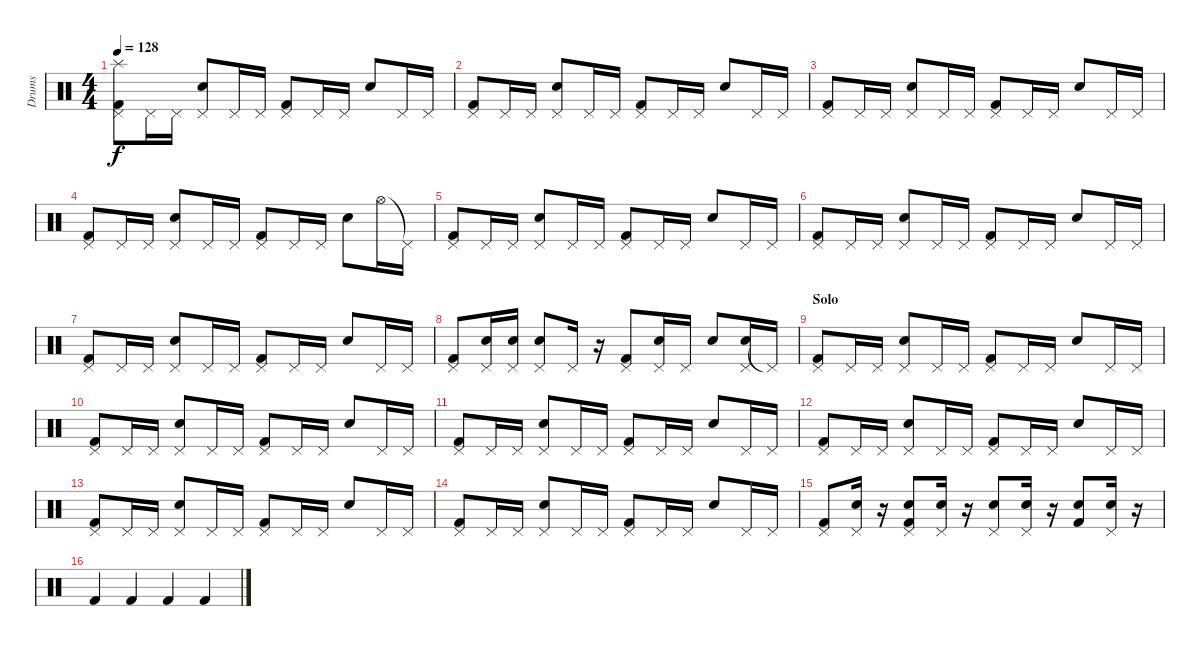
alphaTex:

\track ("Drums" "Drums") {instrument percussion}
\staff {score}
\articulation defaults
\ts (4 4)
\tempo 128
\clef neutral
\ks c
("Splash (hit)" "Kick (hit) 2" "Pedal Hi-Hat (hit)").8{dy f} "Pedal Hi-Hat (hit)".16 "Pedal Hi-Hat (hit)".16 ("Snare (hit) 2" "Pedal Hi-Hat (hit)").8 "Pedal Hi-Hat (hit)".16 "Pedal Hi-Hat (hit)".16 ("Kick (hit) 2" "Pedal Hi-Hat (hit)").8 "Pedal Hi-Hat (hit)".16 "Pedal Hi-Hat (hit)".16 "Snare (hit) 2".8 "Pedal Hi-Hat (hit)".16 "Pedal Hi-Hat (hit)".16 |
("Kick (hit) 2" "Pedal Hi-Hat (hit)").8 "Pedal Hi-Hat (hit)".16 "Pedal Hi-Hat (hit)".16 ("Snare (hit) 2" "Pedal Hi-Hat (hit)").8 "Pedal Hi-Hat (hit)".16 "Pedal Hi-Hat (hit)".16 ("Kick (hit) 2" "Pedal Hi-Hat (hit)").8 "Pedal Hi-Hat (hit)".16 "Pedal Hi-Hat (hit)".16 "Snare (hit) 2".8 "Pedal Hi-Hat (hit)".16 "Pedal Hi-Hat (hit)".16 |
("Kick (hit) 2" "Pedal Hi-Hat (hit)").8 "Pedal Hi-Hat (hit)".16 "Pedal Hi-Hat (hit)".16 ("Snare (hit) 2" "Pedal Hi-Hat (hit)").8 "Pedal Hi-Hat (hit)".16 "Pedal Hi-Hat (hit)".16 ("Kick (hit) 2" "Pedal Hi-Hat (hit)").8 "Pedal Hi-Hat (hit)".16 "Pedal Hi-Hat (hit)".16 "Snare (hit) 2".8 "Pedal Hi-Hat (hit)".16 "Pedal Hi-Hat (hit)".16 |
("Kick (hit) 2" "Pedal Hi-Hat (hit)").8 "Pedal Hi-Hat (hit)".16 "Pedal Hi-Hat (hit)".16 ("Snare (hit) 2" "Pedal Hi-Hat (hit)").8 "Pedal Hi-Hat (hit)".16 "Pedal Hi-Hat (hit)".16 ("Kick (hit) 2" "Pedal Hi-Hat (hit)").8 "Pedal Hi-Hat (hit)".16 "Pedal Hi-Hat (hit)".16 "Snare (hit) 2".8 "Hi-Hat (open)".16 "Pedal Hi-Hat (hit)"{t}.16 |
("Kick (hit) 2" "Pedal Hi-Hat (hit)").8 "Pedal Hi-Hat (hit)".16 "Pedal Hi-Hat (hit)".16 ("Snare (hit) 2" "Pedal Hi-Hat (hit)").8 "Pedal Hi-Hat (hit)".16 "Pedal Hi-Hat (hit)".16 ("Kick (hit) 2" "Pedal Hi-Hat (hit)").8 "Pedal Hi-Hat (hit)".16 "Pedal Hi-Hat (hit)".16 "Snare (hit) 2".8 "Pedal Hi-Hat (hit)".16 "Pedal Hi-Hat (hit)".16 |
("Kick (hit) 2" "Pedal Hi-Hat (hit)").8 "Pedal Hi-Hat (hit)".16 "Pedal Hi-Hat (hit)".16 ("Snare (hit) 2" "Pedal Hi-Hat (hit)").8 "Pedal Hi-Hat (hit)".16 "Pedal Hi-Hat (hit)".16 ("Kick (hit) 2" "Pedal Hi-Hat (hit)").8 "Pedal Hi-Hat (hit)".16 "Pedal Hi-Hat (hit)".16 "Snare (hit) 2".8 "Pedal Hi-Hat (hit)".16 "Pedal Hi-Hat (hit)".16 |
("Kick (hit) 2" "Pedal Hi-Hat (hit)").8 "Pedal Hi-Hat (hit)".16 "Pedal Hi-Hat (hit)".16 ("Snare (hit) 2" "Pedal Hi-Hat (hit)").8 "Pedal Hi-Hat (hit)".16 "Pedal Hi-Hat (hit)".16 ("Kick (hit) 2" "Pedal Hi-Hat (hit)").8 "Pedal Hi-Hat (hit)".16 "Pedal Hi-Hat (hit)".16 "Snare (hit) 2".8 "Pedal Hi-Hat (hit)".16 "Pedal Hi-Hat (hit)".16 |
("Kick (hit) 2" "Pedal Hi-Hat (hit)").8 ("Snare (hit) 2" "Pedal Hi-Hat (hit)").16 ("Snare (hit) 2" "Pedal Hi-Hat (hit)").16 ("Snare (hit) 2" "Pedal Hi-Hat (hit)").8 "Pedal Hi-Hat (hit)".16 r.16 ("Kick (hit) 2" "Pedal Hi-Hat (hit)").8 ("Snare (hit) 2" "Pedal Hi-Hat (hit)").16 "Pedal Hi-Hat (hit)".16 "Snare (hit) 2".8 ("Snare (hit) 2" "Pedal Hi-Hat (hit)").16 "Pedal Hi-Hat (hit)"{t}.16 |
\section ("" "Solo")
("Kick (hit) 2" "Pedal Hi-Hat (hit)").8 "Pedal Hi-Hat (hit)".16 "Pedal Hi-Hat (hit)".16 ("Snare (hit) 2" "Pedal Hi-Hat (hit)").8 "Pedal Hi-Hat (hit)".16 "Pedal Hi-Hat (hit)".16 ("Kick (hit) 2" "Pedal Hi-Hat (hit)").8 "Pedal Hi-Hat (hit)".16 "Pedal Hi-Hat (hit)".16 "Snare (hit) 2".8 "Pedal Hi-Hat (hit)".16 "Pedal Hi-Hat (hit)".16 |
("Kick (hit) 2" "Pedal Hi-Hat (hit)").8 "Pedal Hi-Hat (hit)".16 "Pedal Hi-Hat (hit)".16 ("Snare (hit) 2" "Pedal Hi-Hat (hit)").8 "Pedal Hi-Hat (hit)".16 "Pedal Hi-Hat (hit)".16 ("Kick (hit) 2" "Pedal Hi-Hat (hit)").8 "Pedal Hi-Hat (hit)".16 "Pedal Hi-Hat (hit)".16 "Snare (hit) 2".8 "Pedal Hi-Hat (hit)".16 "Pedal Hi-Hat (hit)".16 |
("Kick (hit) 2" "Pedal Hi-Hat (hit)").8 "Pedal Hi-Hat (hit)".16 "Pedal Hi-Hat (hit)".16 ("Snare (hit) 2" "Pedal Hi-Hat (hit)").8 "Pedal Hi-Hat (hit)".16 "Pedal Hi-Hat (hit)".16 ("Kick (hit) 2" "Pedal Hi-Hat (hit)").8 "Pedal Hi-Hat (hit)".16 "Pedal Hi-Hat (hit)".16 "Snare (hit) 2".8 "Pedal Hi-Hat (hit)".16 "Pedal Hi-Hat (hit)".16 |
("Kick (hit) 2" "Pedal Hi-Hat (hit)").8 "Pedal Hi-Hat (hit)".16 "Pedal Hi-Hat (hit)".16 ("Snare (hit) 2" "Pedal Hi-Hat (hit)").8 "Pedal Hi-Hat (hit)".16 "Pedal Hi-Hat (hit)".16 ("Kick (hit) 2" "Pedal Hi-Hat (hit)").8 "Pedal Hi-Hat (hit)".16 "Pedal Hi-Hat (hit)".16 "Snare (hit) 2".8 "Pedal Hi-Hat (hit)".16 "Pedal Hi-Hat (hit)".16 |
("Kick (hit) 2" "Pedal Hi-Hat (hit)").8 "Pedal Hi-Hat (hit)".16 "Pedal Hi-Hat (hit)".16 ("Snare (hit) 2" "Pedal Hi-Hat (hit)").8 "Pedal Hi-Hat (hit)".16 "Pedal Hi-Hat (hit)".16 ("Kick (hit) 2" "Pedal Hi-Hat (hit)").8 "Pedal Hi-Hat (hit)".16 "Pedal Hi-Hat (hit)".16 "Snare (hit) 2".8 "Pedal Hi-Hat (hit)".16 "Pedal Hi-Hat (hit)".16 |
("Kick (hit) 2" "Pedal Hi-Hat (hit)").8 "Pedal Hi-Hat (hit)".16 "Pedal Hi-Hat (hit)".16 ("Snare (hit) 2" "Pedal Hi-Hat (hit)").8 "Pedal Hi-Hat (hit)".16 "Pedal Hi-Hat (hit)".16 ("Kick (hit) 2" "Pedal Hi-Hat (hit)").8 "Pedal Hi-Hat (hit)".16 "Pedal Hi-Hat (hit)".16 "Snare (hit) 2".8 "Pedal Hi-Hat (hit)".16 "Pedal Hi-Hat (hit)".16 |
("Kick (hit) 2" "Pedal Hi-Hat (hit)").8 ("Pedal Hi-Hat (hit)" "Snare (hit) 2").16 r.16 ("Pedal Hi-Hat (hit)" "Kick (hit) 2" "Snare (hit) 2").8 ("Pedal Hi-Hat (hit)" "Snare (hit) 2").16 r.16 ("Pedal Hi-Hat (hit)" "Snare (hit) 2").8 ("Pedal Hi-Hat (hit)" "Snare (hit) 2").16 r.16 ("Kick (hit) 2" "Snare (hit) 2").8 ("Pedal Hi-Hat (hit)" "Snare (hit) 2").16 r.16 |
"Kick (hit) 2".4 "Kick (hit) 2".4 "Kick (hit) 2".4 "Kick (hit) 2".4
